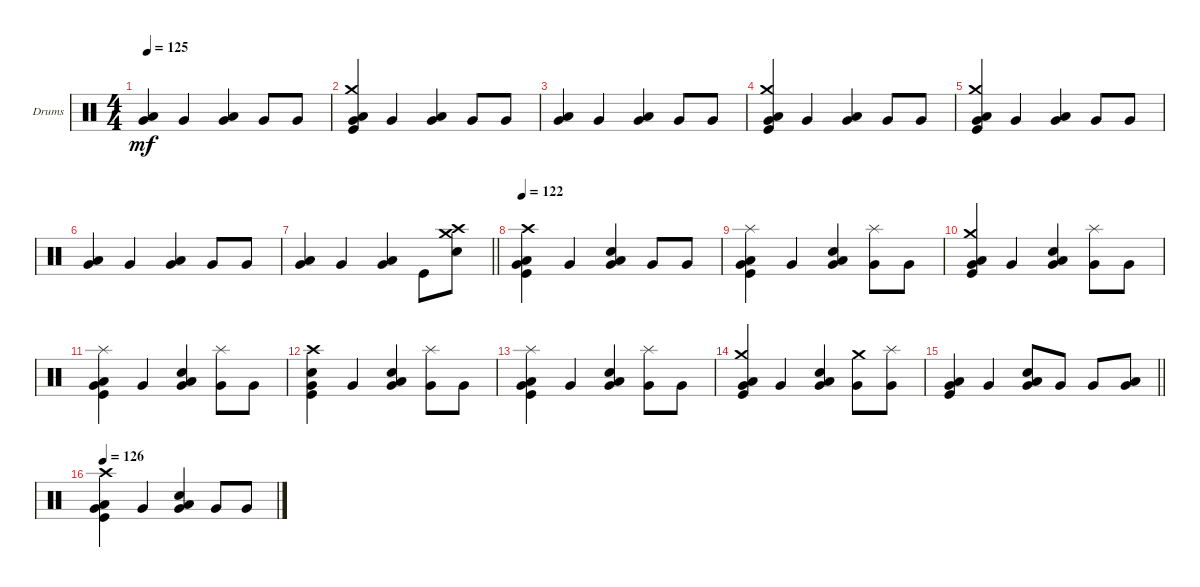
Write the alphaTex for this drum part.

\defaultSystemsLayout 4
\bracketExtendMode groupsimilarinstruments
\firstSystemTrackNameOrientation horizontal
\otherSystemsTrackNameOrientation horizontal
\chordDiagramsInScore
\track ("Drumkit" "Drums") {instrument percussion}
\staff {score}
\articulation defaults
\ts (4 4)
\tempo 125
\clef neutral
\scale
0.333333
\ks c
("Very Low Tom (hit)" "Low Tom (hit)").4{dy mf} "Very Low Tom (hit)".4 ("Very Low Tom (hit)" "Low Tom (hit)").4 "Very Low Tom (hit)".8 "Very Low Tom (hit)".8 |
\scale
0.333333 ("Very Low Tom (hit)" "Low Tom (hit)" "Crash medium (hit)" "Kick (hit)").4 "Very Low Tom (hit)".4 ("Very Low Tom (hit)" "Low Tom (hit)").4 "Very Low Tom (hit)".8 "Very Low Tom (hit)".8 |
\scale
0.333333 ("Very Low Tom (hit)" "Low Tom (hit)").4 "Very Low Tom (hit)".4 ("Very Low Tom (hit)" "Low Tom (hit)").4 "Very Low Tom (hit)".8 "Very Low Tom (hit)".8 |
\scale
0.333333 ("Very Low Tom (hit)" "Low Tom (hit)" "Crash medium (hit)" "Kick (hit)").4 "Very Low Tom (hit)".4 ("Very Low Tom (hit)" "Low Tom (hit)").4 "Very Low Tom (hit)".8 "Very Low Tom (hit)".8 |
\scale
0.333333 ("Very Low Tom (hit)" "Low Tom (hit)" "Crash medium (hit)" "Kick (hit)").4 "Very Low Tom (hit)".4 ("Very Low Tom (hit)" "Low Tom (hit)").4 "Very Low Tom (hit)".8 "Very Low Tom (hit)".8 |
\scale
0.333333 ("Very Low Tom (hit)" "Low Tom (hit)").4 "Very Low Tom (hit)".4 ("Very Low Tom (hit)" "Low Tom (hit)").4 "Very Low Tom (hit)".8 "Very Low Tom (hit)".8 |
\scale
0.333333
\barLineRight lightlight
("Very Low Tom (hit)" "Low Tom (hit)").4 "Very Low Tom (hit)".4 ("Very Low Tom (hit)" "Low Tom (hit)").4 "Kick (hit)".8 ("Snare (hit) 2" "Crash medium (hit)" "Crash high (hit)").8 |
\tempo 122
\scale
0.333333 ("Very Low Tom (hit)" "Crash high (hit)" "Kick (hit)" "Low Tom (hit)").4 "Very Low Tom (hit)".4 ("Very Low Tom (hit)" "Low Tom (hit)" "Snare (hit) 2").4 "Very Low Tom (hit)".8 "Very Low Tom (hit)".8 |
\scale
0.333333 ("Very Low Tom (hit)" "Low Tom (hit)" "Kick (hit)" "Splash (hit)").4 "Very Low Tom (hit)".4 ("Very Low Tom (hit)" "Low Tom (hit)" "Snare (hit) 2").4 ("Very Low Tom (hit)" "Splash (hit)").8 "Very Low Tom (hit)".8 |
\scale
0.333333 ("Very Low Tom (hit)" "Low Tom (hit)" "Crash medium (hit)" "Kick (hit)").4 "Very Low Tom (hit)".4 ("Very Low Tom (hit)" "Low Tom (hit)" "Snare (hit) 2").4 ("Very Low Tom (hit)" "Splash (hit)").8 "Very Low Tom (hit)".8 |
\scale
0.333333 ("Very Low Tom (hit)" "Low Tom (hit)" "Kick (hit)" "Splash (hit)").4 "Very Low Tom (hit)".4 ("Very Low Tom (hit)" "Low Tom (hit)" "Snare (hit) 2").4 ("Very Low Tom (hit)" "Splash (hit)").8 "Very Low Tom (hit)".8 |
\scale
0.333333 ("Very Low Tom (hit)" "Snare (hit) 2" "Crash high (hit)" "Kick (hit)").4 "Very Low Tom (hit)".4 ("Very Low Tom (hit)" "Low Tom (hit)" "Snare (hit) 2").4 ("Very Low Tom (hit)" "Splash (hit)").8 "Very Low Tom (hit)".8 |
\scale
0.333333 ("Very Low Tom (hit)" "Low Tom (hit)" "Kick (hit)" "Splash (hit)").4 "Very Low Tom (hit)".4 ("Very Low Tom (hit)" "Low Tom (hit)" "Snare (hit) 2").4 ("Very Low Tom (hit)" "Splash (hit)").8 "Very Low Tom (hit)".8 |
\scale
0.333333 ("Very Low Tom (hit)" "Low Tom (hit)" "Crash medium (hit)" "Kick (hit)").4 "Very Low Tom (hit)".4 ("Very Low Tom (hit)" "Low Tom (hit)" "Snare (hit) 2").4 ("Very Low Tom (hit)" "Crash medium (hit)").8 ("Very Low Tom (hit)" "Splash (hit)").8 |
\scale
0.333333
\barLineRight lightlight
("Very Low Tom (hit)" "Low Tom (hit)" "Kick (hit)").4 "Very Low Tom (hit)".4 ("Very Low Tom (hit)" "Low Tom (hit)" "Snare (hit) 2").8 "Very Low Tom (hit)".8 "Very Low Tom (hit)".8 ("Low Tom (hit)" "Very Low Tom (hit)").8 |
\tempo (126 0.0175439)
\scale
0.333333 ("Very Low Tom (hit)" "Crash high (hit)" "Kick (hit)" "Low Tom (hit)").4 "Very Low Tom (hit)".4 ("Very Low Tom (hit)" "Low Tom (hit)" "Snare (hit) 2").4 "Very Low Tom (hit)".8 "Very Low Tom (hit)".8
